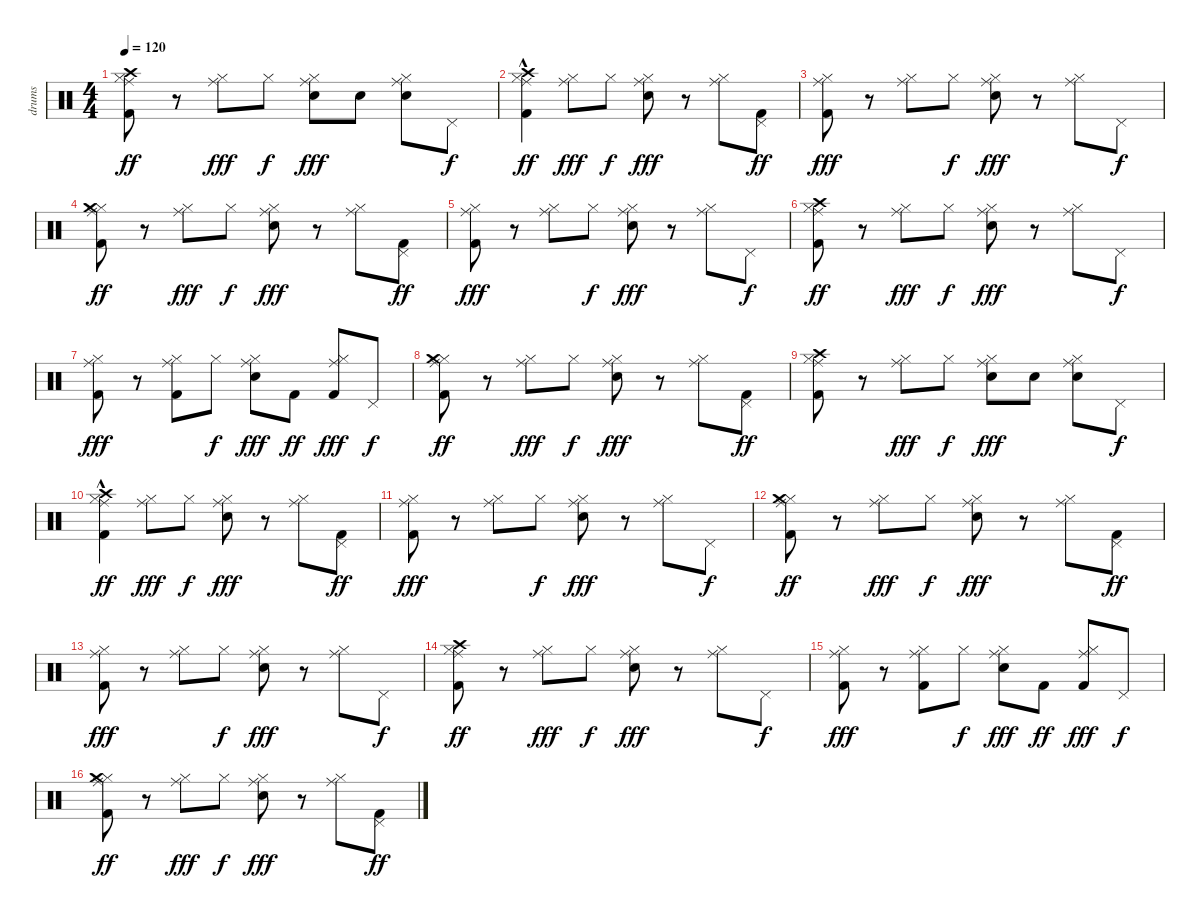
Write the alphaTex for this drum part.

\track ("drums" "drums") {instrument percussion}
\staff {score}
\articulation defaults
\ts (4 4)
\tempo 120
\clef neutral
\ks c
("Kick (hit) 2" "Hi-Hat (closed)" "Ride (middle)" "Crash high (hit)").8{dy ff} r.8 ("Hi-Hat (closed)" "Ride (middle)").8{dy fff} "Hi-Hat (closed)".8{dy f} ("Snare (hit) 2" "Hi-Hat (closed)" "Ride (middle)").8{dy fff} "Snare (hit) 2".8 ("Snare (hit) 2" "Hi-Hat (closed)" "Ride (middle)").8 "Pedal Hi-Hat (hit)".8{dy f} |
("Kick (hit) 2" "Hi-Hat (closed)" "Ride (middle)" "Crash high (hit)"{hac}).4{dy ff} ("Hi-Hat (closed)" "Ride (middle)").8{dy fff} "Hi-Hat (closed)".8{dy f} ("Snare (hit) 2" "Hi-Hat (closed)" "Ride (middle)").8{dy fff} r.8 ("Hi-Hat (closed)" "Ride (middle)").8 ("Kick (hit) 2" "Pedal Hi-Hat (hit)").8{dy ff} |
("Kick (hit) 2" "Hi-Hat (closed)" "Ride (middle)").8{dy fff} r.8 ("Hi-Hat (closed)" "Ride (middle)").8 "Hi-Hat (closed)".8{dy f} ("Snare (hit) 2" "Hi-Hat (closed)" "Ride (middle)").8{dy fff} r.8 ("Hi-Hat (closed)" "Ride (middle)").8 "Pedal Hi-Hat (hit)".8{dy f} |
("Kick (hit) 2" "Hi-Hat (closed)" "Ride (middle)" "Crash medium (hit)").8{dy ff} r.8 ("Hi-Hat (closed)" "Ride (middle)").8{dy fff} "Hi-Hat (closed)".8{dy f} ("Snare (hit) 2" "Hi-Hat (closed)" "Ride (middle)").8{dy fff} r.8 ("Hi-Hat (closed)" "Ride (middle)").8 ("Kick (hit) 2" "Pedal Hi-Hat (hit)").8{dy ff} |
("Kick (hit) 2" "Hi-Hat (closed)" "Ride (middle)").8{dy fff} r.8 ("Hi-Hat (closed)" "Ride (middle)").8 "Hi-Hat (closed)".8{dy f} ("Snare (hit) 2" "Hi-Hat (closed)" "Ride (middle)").8{dy fff} r.8 ("Hi-Hat (closed)" "Ride (middle)").8 "Pedal Hi-Hat (hit)".8{dy f} |
("Kick (hit) 2" "Hi-Hat (closed)" "Ride (middle)" "Crash high (hit)").8{dy ff} r.8 ("Hi-Hat (closed)" "Ride (middle)").8{dy fff} "Hi-Hat (closed)".8{dy f} ("Snare (hit) 2" "Hi-Hat (closed)" "Ride (middle)").8{dy fff} r.8 ("Hi-Hat (closed)" "Ride (middle)").8 "Pedal Hi-Hat (hit)".8{dy f} |
("Kick (hit) 2" "Hi-Hat (closed)" "Ride (middle)").8{dy fff} r.8 ("Kick (hit) 2" "Hi-Hat (closed)" "Ride (middle)").8 "Hi-Hat (closed)".8{dy f volume 16} ("Snare (hit) 2" "Hi-Hat (closed)" "Ride (middle)").8{dy fff} "Kick (hit) 2".8{dy ff} ("Kick (hit) 2" "Hi-Hat (closed)" "Ride (middle)").8{dy fff volume 16} "Pedal Hi-Hat (hit)".8{dy f volume 16} |
("Kick (hit) 2" "Hi-Hat (closed)" "Ride (middle)" "Crash medium (hit)").8{dy ff} r.8 ("Hi-Hat (closed)" "Ride (middle)").8{dy fff volume 15} "Hi-Hat (closed)".8{dy f volume 15} ("Snare (hit) 2" "Hi-Hat (closed)" "Ride (middle)").8{dy fff} r.8 ("Hi-Hat (closed)" "Ride (middle)").8{volume 15} ("Kick (hit) 2" "Pedal Hi-Hat (hit)").8{dy ff volume 15} |
("Kick (hit) 2" "Hi-Hat (closed)" "Ride (middle)" "Crash high (hit)").8{volume 14} r.8 ("Hi-Hat (closed)" "Ride (middle)").8{dy fff volume 14} "Hi-Hat (closed)".8{dy f volume 14} ("Snare (hit) 2" "Hi-Hat (closed)" "Ride (middle)").8{dy fff} "Snare (hit) 2".8 ("Snare (hit) 2" "Hi-Hat (closed)" "Ride (middle)").8{volume 14} "Pedal Hi-Hat (hit)".8{dy f volume 14} |
("Kick (hit) 2" "Hi-Hat (closed)" "Ride (middle)" "Crash high (hit)"{hac}).4{dy ff volume 13} ("Hi-Hat (closed)" "Ride (middle)").8{dy fff volume 13} "Hi-Hat (closed)".8{dy f volume 13} ("Snare (hit) 2" "Hi-Hat (closed)" "Ride (middle)").8{dy fff volume 13} r.8 ("Hi-Hat (closed)" "Ride (middle)").8{volume 12} ("Kick (hit) 2" "Pedal Hi-Hat (hit)").8{dy ff volume 12} |
("Kick (hit) 2" "Hi-Hat (closed)" "Ride (middle)").8{dy fff} r.8 ("Hi-Hat (closed)" "Ride (middle)").8{volume 12} "Hi-Hat (closed)".8{dy f volume 12} ("Snare (hit) 2" "Hi-Hat (closed)" "Ride (middle)").8{dy fff volume 12} r.8 ("Hi-Hat (closed)" "Ride (middle)").8{volume 12} "Pedal Hi-Hat (hit)".8{dy f volume 11} |
("Kick (hit) 2" "Hi-Hat (closed)" "Ride (middle)" "Crash medium (hit)").8{dy ff volume 11} r.8 ("Hi-Hat (closed)" "Ride (middle)").8{dy fff volume 11} "Hi-Hat (closed)".8{dy f} ("Snare (hit) 2" "Hi-Hat (closed)" "Ride (middle)").8{dy fff volume 11} r.8 ("Hi-Hat (closed)" "Ride (middle)").8{volume 10} ("Kick (hit) 2" "Pedal Hi-Hat (hit)").8{dy ff volume 10} |
("Kick (hit) 2" "Hi-Hat (closed)" "Ride (middle)").8{dy fff volume 10} r.8 ("Hi-Hat (closed)" "Ride (middle)").8{volume 10} "Hi-Hat (closed)".8{dy f volume 10} ("Snare (hit) 2" "Hi-Hat (closed)" "Ride (middle)").8{dy fff volume 10} r.8 ("Hi-Hat (closed)" "Ride (middle)").8{volume 10} "Pedal Hi-Hat (hit)".8{dy f volume 9} |
("Kick (hit) 2" "Hi-Hat (closed)" "Ride (middle)" "Crash high (hit)").8{dy ff volume 9} r.8 ("Hi-Hat (closed)" "Ride (middle)").8{dy fff volume 9} "Hi-Hat (closed)".8{dy f volume 9} ("Snare (hit) 2" "Hi-Hat (closed)" "Ride (middle)").8{dy fff volume 8} r.8 ("Hi-Hat (closed)" "Ride (middle)").8{volume 8} "Pedal Hi-Hat (hit)".8{dy f volume 8} |
("Kick (hit) 2" "Hi-Hat (closed)" "Ride (middle)").8{dy fff volume 8} r.8 ("Kick (hit) 2" "Hi-Hat (closed)" "Ride (middle)").8{volume 8} "Hi-Hat (closed)".8{dy f volume 7} ("Snare (hit) 2" "Hi-Hat (closed)" "Ride (middle)").8{dy fff volume 7} "Kick (hit) 2".8{dy ff volume 7} ("Kick (hit) 2" "Hi-Hat (closed)" "Ride (middle)").8{dy fff volume 7} "Pedal Hi-Hat (hit)".8{dy f} |
("Kick (hit) 2" "Hi-Hat (closed)" "Ride (middle)" "Crash medium (hit)").8{dy ff volume 6} r.8 ("Hi-Hat (closed)" "Ride (middle)").8{dy fff volume 6} "Hi-Hat (closed)".8{dy f volume 6} ("Snare (hit) 2" "Hi-Hat (closed)" "Ride (middle)").8{dy fff volume 5} r.8 ("Hi-Hat (closed)" "Ride (middle)").8{volume 5} ("Kick (hit) 2" "Pedal Hi-Hat (hit)").8{dy ff volume 5}
